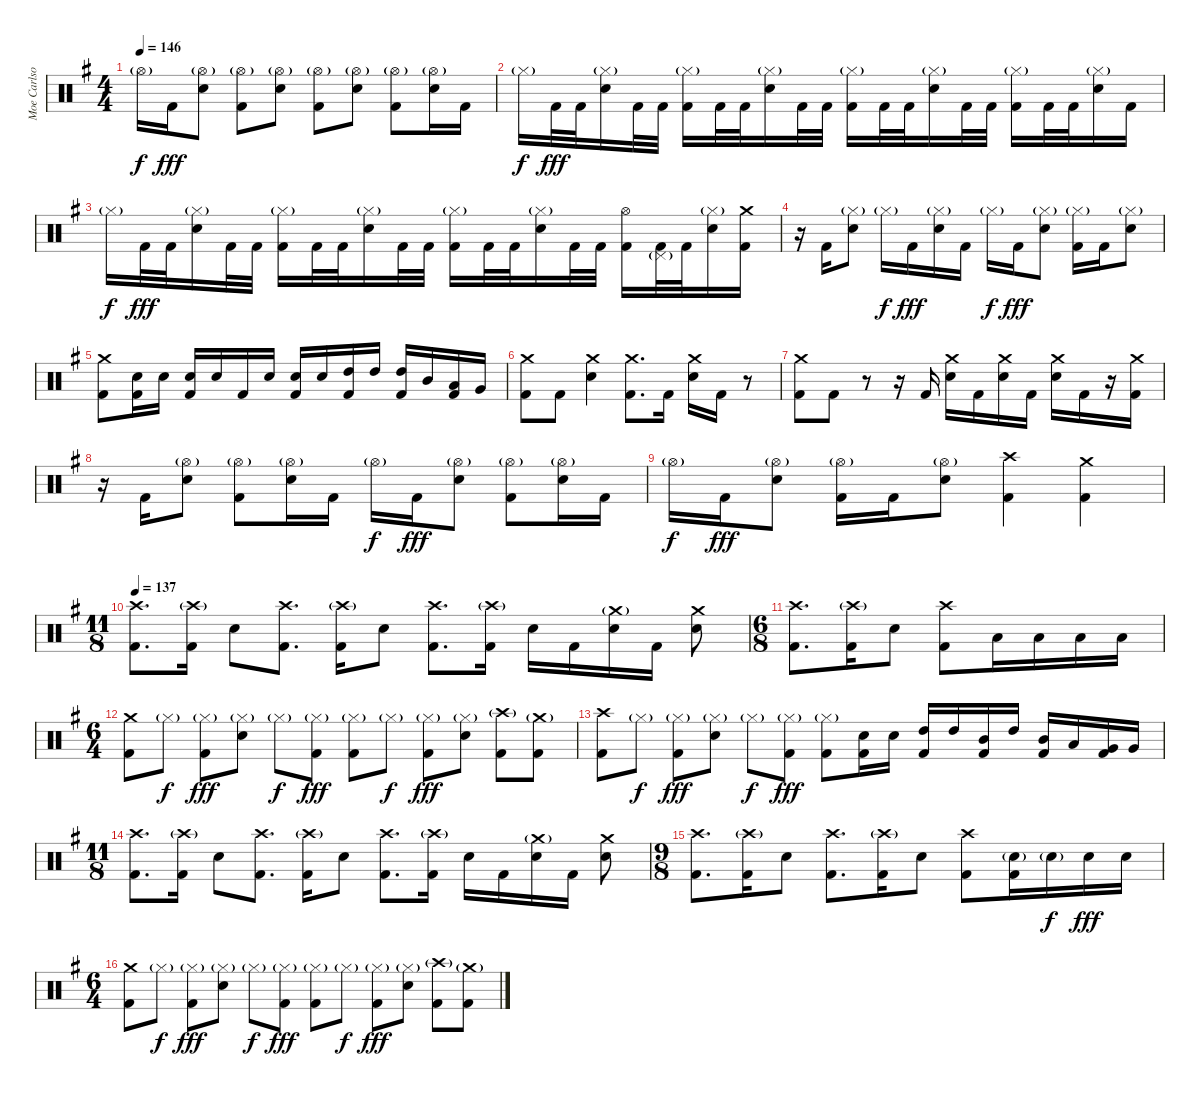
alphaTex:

\track ("Moe Carlson" "Moe Carlso") {instrument percussion}
\staff {score}
\articulation defaults
\ts (4 4)
\tempo 146
\clef neutral
\ks g "Hi-Hat (open)"{g}.16{dy f} "Kick (hit) 2".16{dy fff}
("Hi-Hat (open)"{g} "Electric Snare (hit)").8 ("Hi-Hat (open)"{g} "Kick (hit) 2").8 ("Hi-Hat (open)"{g} "Electric Snare (hit)").8 ("Hi-Hat (open)"{g} "Kick (hit) 2").8 ("Hi-Hat (open)"{g} "Electric Snare (hit)").8 ("Hi-Hat (open)"{g} "Kick (hit) 2").8 ("Hi-Hat (open)"{g} "Electric Snare (hit)").16 "Kick (hit) 2".16 |
"Hi-Hat (closed)"{g}.16{dy f} "Kick (hit) 2".32{dy fff} "Kick (hit) 2".32 ("Hi-Hat (closed)"{g} "Electric Snare (hit)").16 "Kick (hit) 2".32 "Kick (hit) 2".32 ("Hi-Hat (closed)"{g} "Kick (hit) 2").16 "Kick (hit) 2".32 "Kick (hit) 2".32 ("Hi-Hat (closed)"{g} "Electric Snare (hit)").16 "Kick (hit) 2".32 "Kick (hit) 2".32 ("Hi-Hat (closed)"{g} "Kick (hit) 2").16 "Kick (hit) 2".32 "Kick (hit) 2".32 ("Hi-Hat (closed)"{g} "Electric Snare (hit)").16 "Kick (hit) 2".32 "Kick (hit) 2".32 ("Hi-Hat (closed)"{g} "Kick (hit) 2").16 "Kick (hit) 2".32 "Kick (hit) 2".32 ("Hi-Hat (closed)"{g} "Electric Snare (hit)").16 "Kick (hit) 2".16 |
"Hi-Hat (closed)"{g}.16{dy f} "Kick (hit) 2".32{dy fff} "Kick (hit) 2".32 ("Hi-Hat (closed)"{g} "Electric Snare (hit)").16 "Kick (hit) 2".32 "Kick (hit) 2".32 ("Hi-Hat (closed)"{g} "Kick (hit) 2").16 "Kick (hit) 2".32 "Kick (hit) 2".32 ("Hi-Hat (closed)"{g} "Electric Snare (hit)").16 "Kick (hit) 2".32 "Kick (hit) 2".32 ("Hi-Hat (closed)"{g} "Kick (hit) 2").16 "Kick (hit) 2".32 "Kick (hit) 2".32 ("Hi-Hat (closed)"{g} "Electric Snare (hit)").16 "Kick (hit) 2".32 "Kick (hit) 2".32 ("Hi-Hat (open)" "Kick (hit) 2").16 ("Pedal Hi-Hat (hit)"{g} "Kick (hit) 2").32 "Kick (hit) 2".32 ("Hi-Hat (closed)"{g} "Electric Snare (hit)").16 ("Crash medium (hit)" "Kick (hit) 2").16 |
r.16 "Kick (hit) 2".16 ("Hi-Hat (closed)"{g} "Electric Snare (hit)").8 "Hi-Hat (closed)"{g}.16{dy f} "Kick (hit) 2".16{dy fff} ("Hi-Hat (closed)"{g} "Electric Snare (hit)").16 "Kick (hit) 2".16 "Hi-Hat (closed)"{g}.16{dy f} "Kick (hit) 2".16{dy fff} ("Hi-Hat (closed)"{g} "Electric Snare (hit)").8 ("Hi-Hat (closed)"{g} "Kick (hit) 2").16 "Kick (hit) 2".16 ("Hi-Hat (closed)"{g} "Electric Snare (hit)").8 |
("Crash medium (hit)" "Kick (hit) 2").8 ("Electric Snare (hit)" "Kick (hit) 2").16 "Electric Snare (hit)".16 ("Electric Snare (hit)" "Kick (hit) 2").16 "Electric Snare (hit)".16 "Kick (hit) 2".16 "Electric Snare (hit)".16 ("Electric Snare (hit)" "Kick (hit) 2").16 "Electric Snare (hit)".16 ("High Tom (hit)" "Kick (hit) 2").16 "High Tom (hit)".16 ("High Tom (hit)" "Kick (hit) 2").16 "Mid Tom (hit)".16 ("Low Tom (hit)" "Kick (hit) 2").16 "Very Low Tom (hit)".16 |
("Crash medium (hit)" "Kick (hit) 2").8 "Kick (hit) 2".8 ("Crash medium (hit)" "Electric Snare (hit)").4 ("Crash medium (hit)" "Kick (hit) 2").8{d} "Kick (hit) 2".16 ("Crash medium (hit)" "Electric Snare (hit)").16 "Kick (hit) 2".16 r.8 |
("Crash medium (hit)" "Kick (hit) 2").8 "Kick (hit) 2".8 r.8 r.16 "Kick (hit) 2".16 ("Crash medium (hit)" "Electric Snare (hit)").16 "Kick (hit) 2".16 ("Crash medium (hit)" "Electric Snare (hit)").16 "Kick (hit) 2".16 ("Crash medium (hit)" "Electric Snare (hit)").16 "Kick (hit) 2".16 r.16 ("Crash medium (hit)" "Kick (hit) 2").16 |
r.16 "Kick (hit) 2".16 ("Hi-Hat (open)"{g} "Electric Snare (hit)").8 ("Hi-Hat (open)"{g} "Kick (hit) 2").8 ("Hi-Hat (open)"{g} "Electric Snare (hit)").16 "Kick (hit) 2".16 "Hi-Hat (open)"{g}.16{dy f} "Kick (hit) 2".16{dy fff} ("Hi-Hat (open)"{g} "Electric Snare (hit)").8 ("Hi-Hat (open)"{g} "Kick (hit) 2").8 ("Hi-Hat (open)"{g} "Electric Snare (hit)").16 "Kick (hit) 2".16 |
"Hi-Hat (open)"{g}.16{dy f} "Kick (hit) 2".16{dy fff} ("Hi-Hat (open)"{g} "Electric Snare (hit)").8 ("Hi-Hat (open)"{g} "Kick (hit) 2").16 "Kick (hit) 2".16 ("Hi-Hat (open)"{g} "Electric Snare (hit)").8 ("Crash high (hit)" "Kick (hit) 2").4 ("Crash medium (hit)" "Kick (hit) 2").4 |
\ts (11 8)
\tempo 137
("Crash high (hit)" "Kick (hit) 2").8{d} ("Crash high (hit)"{g} "Kick (hit) 2").16 "Electric Snare (hit)".8 ("Crash high (hit)" "Kick (hit) 2").8{d} ("Crash high (hit)"{g} "Kick (hit) 2").16 "Electric Snare (hit)".8 ("Crash high (hit)" "Kick (hit) 2").8{d} ("Crash high (hit)"{g} "Kick (hit) 2").16 "Electric Snare (hit)".16 "Kick (hit) 2".16 ("Crash medium (hit)"{g} "Electric Snare (hit)").16 "Kick (hit) 2".16 ("Crash medium (hit)" "Electric Snare (hit)").8 |
\ts (6 8)
("Crash high (hit)" "Kick (hit) 2").8{d} ("Crash high (hit)"{g} "Kick (hit) 2").16 "Electric Snare (hit)".8 ("Crash high (hit)" "Kick (hit) 2").8 "Low Floor Tom (hit)".16 "Low Floor Tom (hit)".16 "Low Floor Tom (hit)".16 "Low Floor Tom (hit)".16 |
\ts (6 4)
("Crash medium (hit)" "Kick (hit) 2").8 "Hi-Hat (closed)"{g}.8{dy f} ("Hi-Hat (closed)"{g} "Kick (hit) 2").8{dy fff} ("Hi-Hat (closed)"{g} "Electric Snare (hit)").8 "Hi-Hat (closed)"{g}.8{dy f} ("Hi-Hat (closed)"{g} "Kick (hit) 2").8{dy fff} ("Hi-Hat (closed)"{g} "Kick (hit) 2").8 "Hi-Hat (closed)"{g}.8{dy f} ("Hi-Hat (closed)"{g} "Kick (hit) 2").8{dy fff} ("Hi-Hat (closed)"{g} "Electric Snare (hit)").8 ("Crash high (hit)"{g} "Kick (hit) 2").8 ("Crash medium (hit)"{g} "Kick (hit) 2").8 |
("Crash high (hit)" "Kick (hit) 2").8 "Hi-Hat (closed)"{g}.8{dy f} ("Hi-Hat (closed)"{g} "Kick (hit) 2").8{dy fff} ("Hi-Hat (closed)"{g} "Electric Snare (hit)").8 "Hi-Hat (closed)"{g}.8{dy f} ("Hi-Hat (closed)"{g} "Kick (hit) 2").8{dy fff} ("Hi-Hat (closed)"{g} "Kick (hit) 2").8 ("Electric Snare (hit)" "Kick (hit) 2").16 "Electric Snare (hit)".16 ("High Tom (hit)" "Kick (hit) 2").16 "High Tom (hit)".16 ("Mid Tom (hit)" "Kick (hit) 2").16 "High Tom (hit)".16 ("Mid Tom (hit)" "Kick (hit) 2").16 "Low Tom (hit)".16 ("Very Low Tom (hit)" "Kick (hit) 2").16 "Very Low Tom (hit)".16 |
\ts (11 8)
("Crash high (hit)" "Kick (hit) 2").8{d} ("Crash high (hit)"{g} "Kick (hit) 2").16 "Electric Snare (hit)".8 ("Crash high (hit)" "Kick (hit) 2").8{d} ("Crash high (hit)"{g} "Kick (hit) 2").16 "Electric Snare (hit)".8 ("Crash high (hit)" "Kick (hit) 2").8{d} ("Crash high (hit)"{g} "Kick (hit) 2").16 "Electric Snare (hit)".16 "Kick (hit) 2".16 ("Crash medium (hit)"{g} "Electric Snare (hit)").16 "Kick (hit) 2".16 ("Crash medium (hit)" "Electric Snare (hit)").8 |
\ts (9 8)
("Crash high (hit)" "Kick (hit) 2").8{d} ("Crash high (hit)"{g} "Kick (hit) 2").16 "Electric Snare (hit)".8 ("Crash high (hit)" "Kick (hit) 2").8{d} ("Crash high (hit)"{g} "Kick (hit) 2").16 "Electric Snare (hit)".8 ("Crash high (hit)" "Kick (hit) 2").8 ("Electric Snare (hit)"{g} "Kick (hit) 2").16 "Electric Snare (hit)"{g}.16{dy f} "Electric Snare (hit)".16{dy fff} "Electric Snare (hit)".16 |
\ts (6 4)
("Crash medium (hit)" "Kick (hit) 2").8 "Hi-Hat (closed)"{g}.8{dy f} ("Hi-Hat (closed)"{g} "Kick (hit) 2").8{dy fff} ("Hi-Hat (closed)"{g} "Electric Snare (hit)").8 "Hi-Hat (closed)"{g}.8{dy f} ("Hi-Hat (closed)"{g} "Kick (hit) 2").8{dy fff} ("Hi-Hat (closed)"{g} "Kick (hit) 2").8 "Hi-Hat (closed)"{g}.8{dy f} ("Hi-Hat (closed)"{g} "Kick (hit) 2").8{dy fff} ("Hi-Hat (closed)"{g} "Electric Snare (hit)").8 ("Crash high (hit)"{g} "Kick (hit) 2").8 ("Crash medium (hit)"{g} "Kick (hit) 2").8
